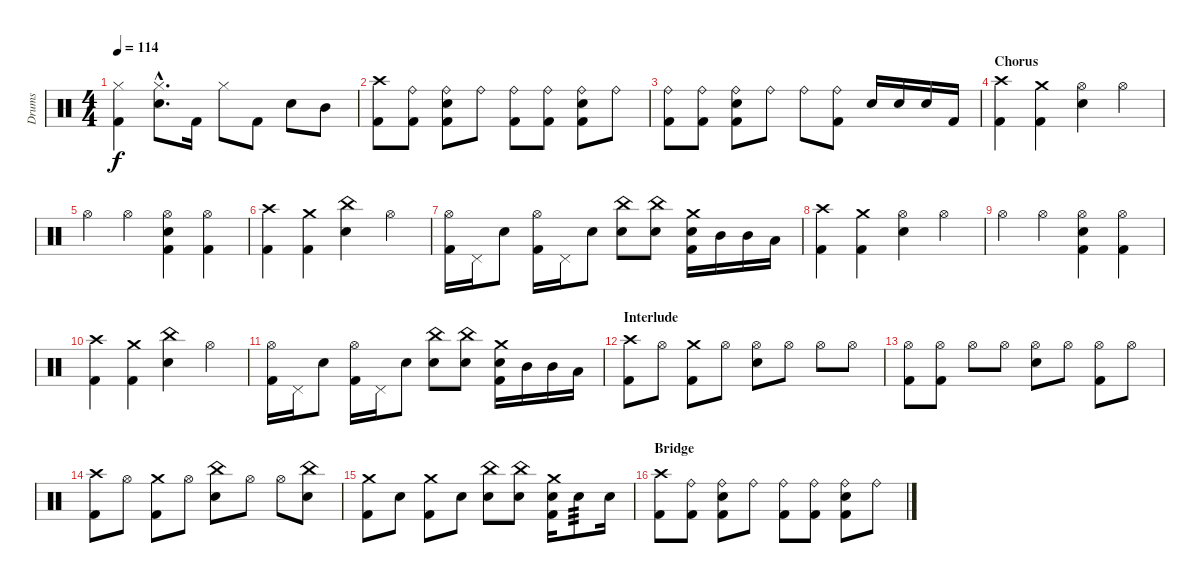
\track ("Drums" "Drums") {instrument percussion}
\staff {score}
\articulation defaults
\ts (4 4)
\tempo 114
\clef neutral
\ks c
("Hi-Hat (closed)" "Kick (hit) 2").4{dy f} ("Hi-Hat (closed)"{hac} "Snare (hit) 2"{hac}).8{d} "Kick (hit) 2".16 "Hi-Hat (closed)".8 "Kick (hit) 2".8 "Snare (hit) 2".8 "Mid Tom (hit)".8 |
("Crash high (hit)" "Kick (hit) 2").8{volume 13 balance 8} ("Ride (bell)" "Kick (hit) 2").8 ("Ride (bell)" "Snare (hit) 2" "Kick (hit) 2").8 "Ride (bell)".8 ("Ride (bell)" "Kick (hit) 2").8 ("Ride (bell)" "Kick (hit) 2").8 ("Ride (bell)" "Snare (hit) 2" "Kick (hit) 2").8 "Ride (bell)".8 |
("Ride (bell)" "Kick (hit) 2").8 ("Ride (bell)" "Kick (hit) 2").8 ("Ride (bell)" "Snare (hit) 2" "Kick (hit) 2").8 "Ride (bell)".8 "Ride (bell)".8 ("Ride (bell)" "Kick (hit) 2").8 "Snare (hit) 2".16 "Snare (hit) 2".16 "Snare (hit) 2".16 "Kick (hit) 2".16 |
\section ("" "Chorus")
("Crash high (hit)" "Kick (hit) 2").4 ("Crash medium (hit)" "Kick (hit) 2").4 ("Hi-Hat (open)" "Snare (hit) 2").4 "Hi-Hat (open)".4 |
"Hi-Hat (open)".4 "Hi-Hat (open)".4 ("Hi-Hat (open)" "Snare (hit) 2" "Kick (hit) 2").4 ("Hi-Hat (open)" "Kick (hit) 2").4 |
("Crash high (hit)" "Kick (hit) 2").4 ("Crash medium (hit)" "Kick (hit) 2").4 ("China (hit)" "Snare (hit) 2").4 "Hi-Hat (open)".4 |
("Hi-Hat (open)" "Kick (hit) 2").16 "Pedal Hi-Hat (hit)".16 "Snare (hit) 2".8 ("Hi-Hat (open)" "Kick (hit) 2").16 "Pedal Hi-Hat (hit)".16 "Snare (hit) 2".8 ("China (hit)" "Snare (hit) 2").8 ("China (hit)" "Snare (hit) 2").8 ("Crash medium (hit)" "Snare (hit) 2" "Kick (hit) 2").16 "Mid Tom (hit)".16 "Mid Tom (hit)".16 "Low Tom (hit)".16 |
("Crash high (hit)" "Kick (hit) 2").4 ("Crash medium (hit)" "Kick (hit) 2").4 ("Hi-Hat (open)" "Snare (hit) 2").4 "Hi-Hat (open)".4 |
"Hi-Hat (open)".4 "Hi-Hat (open)".4 ("Hi-Hat (open)" "Snare (hit) 2" "Kick (hit) 2").4 ("Hi-Hat (open)" "Kick (hit) 2").4 |
("Crash high (hit)" "Kick (hit) 2").4 ("Crash medium (hit)" "Kick (hit) 2").4 ("China (hit)" "Snare (hit) 2").4 "Hi-Hat (open)".4 |
("Hi-Hat (open)" "Kick (hit) 2").16 "Pedal Hi-Hat (hit)".16 "Snare (hit) 2".8 ("Hi-Hat (open)" "Kick (hit) 2").16 "Pedal Hi-Hat (hit)".16 "Snare (hit) 2".8 ("China (hit)" "Snare (hit) 2").8 ("China (hit)" "Snare (hit) 2").8 ("Crash medium (hit)" "Snare (hit) 2" "Kick (hit) 2").16 "Mid Tom (hit)".16 "Mid Tom (hit)".16 "Low Tom (hit)".16 |
\section ("" "Interlude")
("Crash high (hit)" "Kick (hit) 2").8 "Hi-Hat (open)".8 ("Crash medium (hit)" "Kick (hit) 2").8 "Hi-Hat (open)".8 ("Hi-Hat (open)" "Snare (hit) 2").8 "Hi-Hat (open)".8 "Hi-Hat (open)".8 "Hi-Hat (open)".8 |
("Hi-Hat (open)" "Kick (hit) 2").8 ("Hi-Hat (open)" "Kick (hit) 2").8 "Hi-Hat (open)".8 "Hi-Hat (open)".8 ("Hi-Hat (open)" "Snare (hit) 2").8 "Hi-Hat (open)".8 ("Hi-Hat (open)" "Kick (hit) 2").8 "Hi-Hat (open)".8 |
("Crash high (hit)" "Kick (hit) 2").8 "Hi-Hat (open)".8 ("Crash medium (hit)" "Kick (hit) 2").8 "Hi-Hat (open)".8 ("China (hit)" "Snare (hit) 2").8 "Hi-Hat (open)".8 "Hi-Hat (open)".8 ("China (hit)" "Snare (hit) 2").8 |
("Crash medium (hit)" "Kick (hit) 2").8 "Snare (hit) 2".8 ("Crash medium (hit)" "Kick (hit) 2").8 "Snare (hit) 2".8 ("China (hit)" "Snare (hit) 2").8 ("China (hit)" "Snare (hit) 2").8 ("Crash medium (hit)" "Snare (hit) 2" "Kick (hit) 2").16 "Snare (hit) 2".8{tp 3} "Snare (hit) 2".16 |
\section ("" "Bridge")
("Crash high (hit)" "Kick (hit) 2").8 ("Ride (bell)" "Kick (hit) 2").8 ("Ride (bell)" "Snare (hit) 2" "Kick (hit) 2").8 "Ride (bell)".8 ("Ride (bell)" "Kick (hit) 2").8 ("Ride (bell)" "Kick (hit) 2").8 ("Ride (bell)" "Snare (hit) 2" "Kick (hit) 2").8 "Ride (bell)".8
